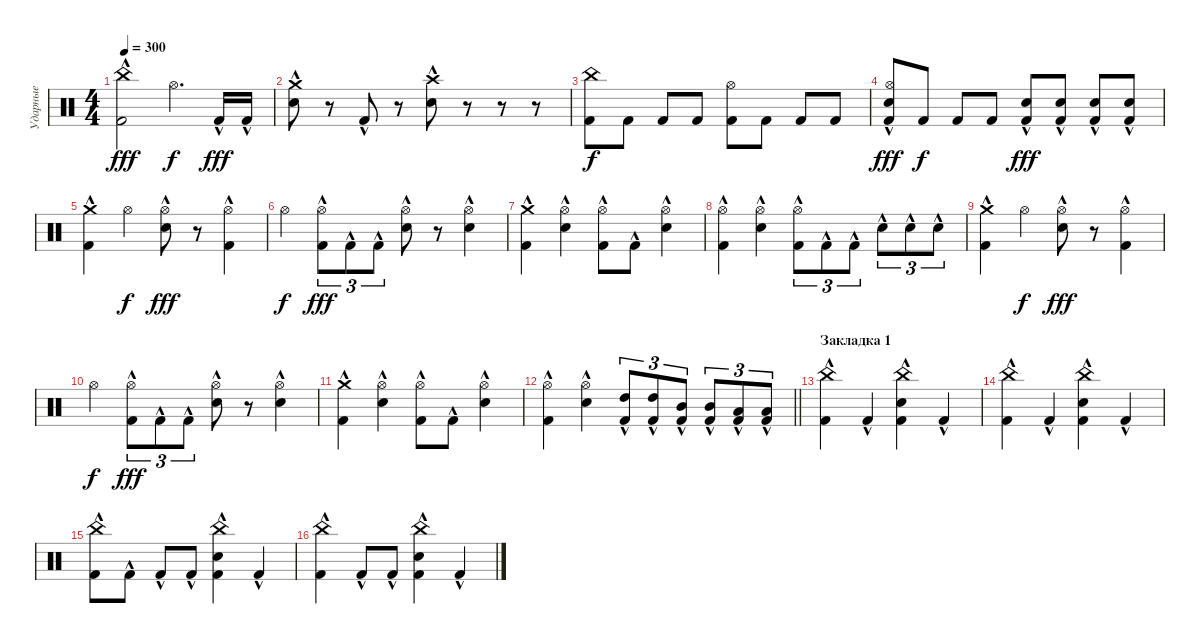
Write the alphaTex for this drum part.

\track ("Ударные" "Ударные") {instrument percussion}
\staff
\articulation defaults
\ts (4 4)
\tempo 300
\clef neutral
\ks c
("China (hit)" "Kick (hit) 2"{hac}).2{dy fff} "Hi-Hat (open)".4{d dy f} "Kick (hit) 2"{hac}.16{dy fff} "Kick (hit) 2"{hac}.16 |
("Crash medium (hit)" "Snare (hit) 2"{hac}).8 r.8 "Kick (hit) 2"{hac}.8 r.8 ("Crash high (hit)" "Snare (hit) 2"{hac}).8 r.8 r.8 r.8 |
("China (hit)" "Kick (hit) 2").8{dy f} "Kick (hit) 2".8 "Kick (hit) 2".8 "Kick (hit) 2".8 ("Hi-Hat (open)" "Kick (hit) 2").8 "Kick (hit) 2".8 "Kick (hit) 2".8 "Kick (hit) 2".8 |
("Hi-Hat (open)" "Snare (hit) 2"{hac} "Kick (hit) 2").8{dy fff} "Kick (hit) 2".8{dy f} "Kick (hit) 2".8 "Kick (hit) 2".8 ("Snare (hit) 2"{hac} "Kick (hit) 2"{hac}).8{dy fff} ("Snare (hit) 2"{hac} "Kick (hit) 2"{hac}).8 ("Snare (hit) 2"{hac} "Kick (hit) 2"{hac}).8 ("Snare (hit) 2"{hac} "Kick (hit) 2"{hac}).8 |
("Crash medium (hit)" "Kick (hit) 2"{hac}).4 "Hi-Hat (open)".4{dy f} ("Hi-Hat (open)" "Snare (hit) 2"{hac}).8{dy fff} r.8 ("Hi-Hat (open)" "Kick (hit) 2"{hac}).4 |
"Hi-Hat (open)".4{dy f} ("Hi-Hat (open)" "Kick (hit) 2"{hac}).8{tu (3 2) dy fff} "Kick (hit) 2"{hac}.8{tu (3 2)} "Kick (hit) 2"{hac}.8{tu (3 2)} ("Hi-Hat (open)" "Snare (hit) 2"{hac}).8 r.8 ("Hi-Hat (open)" "Snare (hit) 2"{hac}).4 |
("Crash medium (hit)" "Kick (hit) 2"{hac}).4 ("Hi-Hat (open)" "Snare (hit) 2"{hac}).4 ("Hi-Hat (open)" "Kick (hit) 2"{hac}).8 "Kick (hit) 2"{hac}.8 ("Hi-Hat (open)" "Snare (hit) 2"{hac}).4 |
("Hi-Hat (open)" "Kick (hit) 2"{hac}).4 ("Hi-Hat (open)" "Snare (hit) 2"{hac}).4 ("Hi-Hat (open)" "Kick (hit) 2"{hac}).8{tu (3 2)} "Kick (hit) 2"{hac}.8{tu (3 2)} "Kick (hit) 2"{hac}.8{tu (3 2)} "Snare (hit) 2"{hac}.8{tu (3 2)} "Snare (hit) 2"{hac}.8{tu (3 2)} "Snare (hit) 2"{hac}.8{tu (3 2)} |
("Crash medium (hit)" "Kick (hit) 2"{hac}).4 "Hi-Hat (open)".4{dy f} ("Hi-Hat (open)" "Snare (hit) 2"{hac}).8{dy fff} r.8 ("Hi-Hat (open)" "Kick (hit) 2"{hac}).4 |
"Hi-Hat (open)".4{dy f} ("Hi-Hat (open)" "Kick (hit) 2"{hac}).8{tu (3 2) dy fff} "Kick (hit) 2"{hac}.8{tu (3 2)} "Kick (hit) 2"{hac}.8{tu (3 2)} ("Hi-Hat (open)" "Snare (hit) 2"{hac}).8 r.8 ("Hi-Hat (open)" "Snare (hit) 2"{hac}).4 |
("Crash medium (hit)" "Kick (hit) 2"{hac}).4 ("Hi-Hat (open)" "Snare (hit) 2"{hac}).4 ("Hi-Hat (open)" "Kick (hit) 2"{hac}).8 "Kick (hit) 2"{hac}.8 ("Hi-Hat (open)" "Snare (hit) 2"{hac}).4 |
\barLineRight lightlight
("Hi-Hat (open)" "Kick (hit) 2"{hac}).4 ("Hi-Hat (open)" "Snare (hit) 2"{hac}).4 ("High Tom (hit)"{hac} "Kick (hit) 2"{hac}).8{tu (3 2)} ("High Tom (hit)"{hac} "Kick (hit) 2"{hac}).8{tu (3 2)} ("Mid Tom (hit)"{hac} "Kick (hit) 2"{hac}).8{tu (3 2)} ("Mid Tom (hit)"{hac} "Kick (hit) 2"{hac}).8{tu (3 2)} ("Low Tom (hit)"{hac} "Kick (hit) 2"{hac}).8{tu (3 2)} ("Low Tom (hit)"{hac} "Kick (hit) 2"{hac}).8{tu (3 2)} |
\section ("" "Закладка 1")
("China (hit)" "Kick (hit) 2"{hac}).4 "Kick (hit) 2"{hac}.4 ("China (hit)" "Snare (hit) 2"{hac} "Kick (hit) 2"{hac}).4 "Kick (hit) 2"{hac}.4 |
("China (hit)" "Kick (hit) 2"{hac}).4 "Kick (hit) 2"{hac}.4 ("China (hit)" "Snare (hit) 2"{hac} "Kick (hit) 2"{hac}).4 "Kick (hit) 2"{hac}.4 |
("China (hit)" "Kick (hit) 2"{hac}).8 "Kick (hit) 2"{hac}.8 "Kick (hit) 2"{hac}.8 "Kick (hit) 2"{hac}.8 ("China (hit)" "Snare (hit) 2"{hac} "Kick (hit) 2"{hac}).4 "Kick (hit) 2"{hac}.4 |
("China (hit)" "Kick (hit) 2"{hac}).4 "Kick (hit) 2"{hac}.8 "Kick (hit) 2"{hac}.8 ("China (hit)" "Snare (hit) 2"{hac} "Kick (hit) 2"{hac}).4 "Kick (hit) 2"{hac}.4
